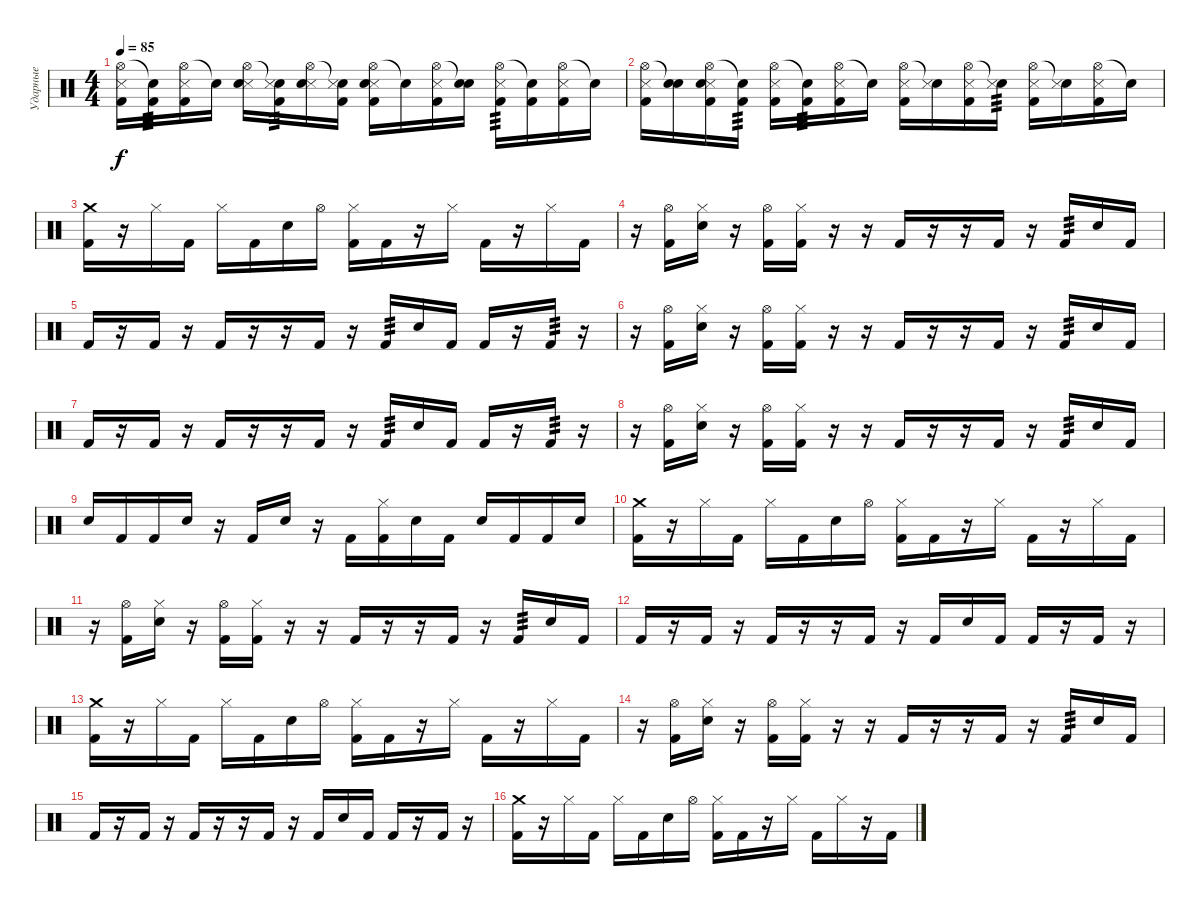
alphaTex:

\track ("Ударные" "Ударные") {instrument percussion}
\staff {score}
\articulation defaults
\ts (4 4)
\tempo 85
\clef neutral
\ks c
("Hi-Hat (open)" "Snare (side stick) 3" "Kick (hit) 2").16{dy f} ("Snare (hit)"{t} "Kick (hit) 2").16{tp 3} ("Hi-Hat (open)" "Snare (side stick) 3" "Kick (hit) 2").16 "Snare (hit)"{t}.16 ("Hi-Hat (open)" "Snare (side stick) 3" "Electric Snare (hit)").16 ("Snare (hit)"{t} "Snare (side stick) 3" "Kick (hit) 2").16{tp 3} ("Hi-Hat (open)" "Snare (side stick) 3" "Electric Snare (hit)").16 ("Snare (hit)"{t} "Snare (side stick) 3" "Kick (hit) 2").16 ("Hi-Hat (open)" "Snare (side stick) 3" "Electric Snare (hit)" "Kick (hit) 2").16 "Snare (hit)"{t}.16 ("Hi-Hat (open)" "Snare (side stick) 3" "Kick (hit) 2").16 ("Snare (hit)"{t} "Electric Snare (hit)").16 ("Hi-Hat (open)" "Snare (side stick) 3" "Kick (hit) 2").16{tp 3} ("Snare (hit)"{t} "Kick (hit) 2").16 ("Hi-Hat (open)" "Snare (side stick) 3" "Kick (hit) 2").16 "Snare (hit)"{t}.16 |
("Hi-Hat (open)" "Snare (side stick) 3" "Kick (hit) 2").16 ("Snare (hit)"{t} "Electric Snare (hit)").16 ("Hi-Hat (open)" "Snare (side stick) 3" "Electric Snare (hit)" "Kick (hit) 2").16 ("Snare (hit)"{t} "Kick (hit) 2").16{tp 3} ("Hi-Hat (open)" "Snare (side stick) 3" "Kick (hit) 2").16 ("Snare (hit)"{t} "Kick (hit) 2").16{tp 3} ("Hi-Hat (open)" "Snare (side stick) 3" "Kick (hit) 2").16 "Snare (hit)"{t}.16 ("Hi-Hat (open)" "Snare (side stick) 3" "Kick (hit) 2").16 ("Snare (hit)"{t} "Snare (side stick) 3").16 ("Hi-Hat (open)" "Snare (side stick) 3" "Kick (hit) 2").16 ("Snare (hit)"{t} "Snare (side stick) 3").16{tp 3} ("Hi-Hat (open)" "Snare (side stick) 3" "Kick (hit) 2").16 ("Snare (hit)"{t} "Snare (side stick) 3").16 ("Hi-Hat (open)" "Snare (side stick) 3" "Kick (hit) 2").16 "Snare (hit)"{t}.16 |
("Crash medium (hit)" "Kick (hit) 2").16 r.16 "Hi-Hat (closed)".16 "Kick (hit) 2".16 "Hi-Hat (closed)".16 "Kick (hit) 2".16 "Electric Snare (hit)".16 "Hi-Hat (open)".16 ("Hi-Hat (closed)" "Kick (hit) 2").16 "Kick (hit) 2".16 r.16 "Hi-Hat (closed)".16 "Kick (hit) 2".16 r.16 "Hi-Hat (closed)".16 "Kick (hit) 2".16 |
r.16 ("Hi-Hat (open)" "Kick (hit) 2").16 ("Hi-Hat (closed)" "Electric Snare (hit)").16 r.16 ("Hi-Hat (open)" "Kick (hit) 2").16 ("Hi-Hat (closed)" "Kick (hit) 2").16 r.16 r.16 "Kick (hit) 2".16 r.16 r.16 "Kick (hit) 2".16 r.16 "Kick (hit) 2".16{tp 3} "Electric Snare (hit)".16 "Kick (hit) 2".16 |
"Kick (hit) 2".16 r.16 "Kick (hit) 2".16 r.16 "Kick (hit) 2".16 r.16 r.16 "Kick (hit) 2".16 r.16 "Kick (hit) 2".16{tp 3} "Electric Snare (hit)".16 "Kick (hit) 2".16 "Kick (hit) 2".16 r.16 "Kick (hit) 2".16{tp 3} r.16 |
r.16 ("Hi-Hat (open)" "Kick (hit) 2").16 ("Hi-Hat (closed)" "Electric Snare (hit)").16 r.16 ("Hi-Hat (open)" "Kick (hit) 2").16 ("Hi-Hat (closed)" "Kick (hit) 2").16 r.16 r.16 "Kick (hit) 2".16 r.16 r.16 "Kick (hit) 2".16 r.16 "Kick (hit) 2".16{tp 3} "Electric Snare (hit)".16 "Kick (hit) 2".16 |
"Kick (hit) 2".16 r.16 "Kick (hit) 2".16 r.16 "Kick (hit) 2".16 r.16 r.16 "Kick (hit) 2".16 r.16 "Kick (hit) 2".16{tp 3} "Electric Snare (hit)".16 "Kick (hit) 2".16 "Kick (hit) 2".16 r.16 "Kick (hit) 2".16{tp 3} r.16 |
r.16 ("Hi-Hat (open)" "Kick (hit) 2").16 ("Hi-Hat (closed)" "Electric Snare (hit)").16 r.16 ("Hi-Hat (open)" "Kick (hit) 2").16 ("Hi-Hat (closed)" "Kick (hit) 2").16 r.16 r.16 "Kick (hit) 2".16 r.16 r.16 "Kick (hit) 2".16 r.16 "Kick (hit) 2".16{tp 3} "Electric Snare (hit)".16 "Kick (hit) 2".16 |
"Electric Snare (hit)".16 "Kick (hit) 2".16 "Kick (hit) 2".16 "Electric Snare (hit)".16 r.16 "Kick (hit) 2".16 "Electric Snare (hit)".16 r.16 "Kick (hit) 2".16 ("Hi-Hat (closed)" "Kick (hit) 2").16 "Electric Snare (hit)".16 "Kick (hit) 2".16 "Electric Snare (hit)".16 "Kick (hit) 2".16 "Kick (hit) 2".16 "Electric Snare (hit)".16 |
("Crash medium (hit)" "Kick (hit) 2").16 r.16 "Hi-Hat (closed)".16 "Kick (hit) 2".16 "Hi-Hat (closed)".16 "Kick (hit) 2".16 "Electric Snare (hit)".16 "Hi-Hat (open)".16 ("Hi-Hat (closed)" "Kick (hit) 2").16 "Kick (hit) 2".16 r.16 "Hi-Hat (closed)".16 "Kick (hit) 2".16 r.16 "Hi-Hat (closed)".16 "Kick (hit) 2".16 |
r.16 ("Hi-Hat (open)" "Kick (hit) 2").16 ("Hi-Hat (closed)" "Electric Snare (hit)").16 r.16 ("Hi-Hat (open)" "Kick (hit) 2").16 ("Hi-Hat (closed)" "Kick (hit) 2").16 r.16 r.16 "Kick (hit) 2".16 r.16 r.16 "Kick (hit) 2".16 r.16 "Kick (hit) 2".16{tp 3} "Electric Snare (hit)".16 "Kick (hit) 2".16 |
"Kick (hit) 2".16 r.16 "Kick (hit) 2".16 r.16 "Kick (hit) 2".16 r.16 r.16 "Kick (hit) 2".16 r.16 "Kick (hit) 2".16 "Electric Snare (hit)".16 "Kick (hit) 2".16 "Kick (hit) 2".16 r.16 "Kick (hit) 2".16 r.16 |
("Crash medium (hit)" "Kick (hit) 2").16 r.16 "Hi-Hat (closed)".16 "Kick (hit) 2".16 "Hi-Hat (closed)".16 "Kick (hit) 2".16 "Electric Snare (hit)".16 "Hi-Hat (open)".16 ("Hi-Hat (closed)" "Kick (hit) 2").16 "Kick (hit) 2".16 r.16 "Hi-Hat (closed)".16 "Kick (hit) 2".16 r.16 "Hi-Hat (closed)".16 "Kick (hit) 2".16 |
r.16 ("Hi-Hat (open)" "Kick (hit) 2").16 ("Hi-Hat (closed)" "Electric Snare (hit)").16 r.16 ("Hi-Hat (open)" "Kick (hit) 2").16 ("Hi-Hat (closed)" "Kick (hit) 2").16 r.16 r.16 "Kick (hit) 2".16 r.16 r.16 "Kick (hit) 2".16 r.16 "Kick (hit) 2".16{tp 3} "Electric Snare (hit)".16 "Kick (hit) 2".16 |
"Kick (hit) 2".16 r.16 "Kick (hit) 2".16 r.16 "Kick (hit) 2".16 r.16 r.16 "Kick (hit) 2".16 r.16 "Kick (hit) 2".16 "Electric Snare (hit)".16 "Kick (hit) 2".16 "Kick (hit) 2".16 r.16 "Kick (hit) 2".16 r.16 |
("Crash medium (hit)" "Kick (hit) 2").16 r.16 "Hi-Hat (closed)".16 "Kick (hit) 2".16 "Hi-Hat (closed)".16 "Kick (hit) 2".16 "Electric Snare (hit)".16 "Hi-Hat (open)".16 ("Hi-Hat (closed)" "Kick (hit) 2").16 "Kick (hit) 2".16 r.16 "Hi-Hat (closed)".16 "Kick (hit) 2".16 "Hi-Hat (closed)".16 r.16 "Kick (hit) 2".16
